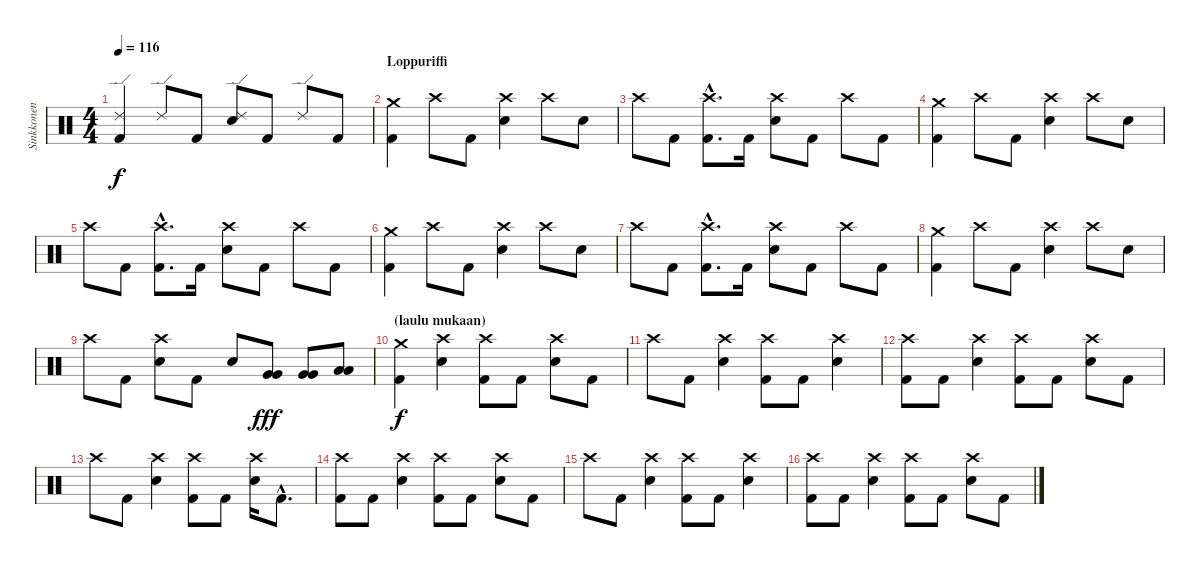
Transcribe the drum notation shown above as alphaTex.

\track ("Sinkkonen" "Sinkkonen") {instrument percussion}
\staff {score}
\articulation defaults
\ts (4 4)
\tempo 116
\clef neutral
\ks c
("Kick (hit) 2" "Ride (edge) 2").4{dy f} "Ride (edge) 2".8 "Kick (hit) 2".8 ("Ride (edge) 2" "Snare (hit) 2").8 "Kick (hit) 2".8 "Ride (edge) 2".8 "Kick (hit) 2".8 |
\section ("" "Loppuriffi")
("Kick (hit) 2" "Crash medium (hit)").4 "Crash high (hit)".8 "Kick (hit) 2".8 ("Crash high (hit)" "Snare (hit) 2").4 "Crash high (hit)".8 "Snare (hit) 2".8 |
"Crash high (hit)".8 "Kick (hit) 2".8 ("Kick (hit) 2"{hac} "Crash high (hit)"{hac}).8{d} "Kick (hit) 2".16 ("Crash high (hit)" "Snare (hit) 2").8 "Kick (hit) 2".8 "Crash high (hit)".8 "Kick (hit) 2".8 |
("Kick (hit) 2" "Crash medium (hit)").4 "Crash high (hit)".8 "Kick (hit) 2".8 ("Crash high (hit)" "Snare (hit) 2").4 "Crash high (hit)".8 "Snare (hit) 2".8 |
"Crash high (hit)".8 "Kick (hit) 2".8 ("Kick (hit) 2"{hac} "Crash high (hit)"{hac}).8{d} "Kick (hit) 2".16 ("Crash high (hit)" "Snare (hit) 2").8 "Kick (hit) 2".8 "Crash high (hit)".8 "Kick (hit) 2".8 |
("Kick (hit) 2" "Crash medium (hit)").4 "Crash high (hit)".8 "Kick (hit) 2".8 ("Crash high (hit)" "Snare (hit) 2").4 "Crash high (hit)".8 "Snare (hit) 2".8 |
"Crash high (hit)".8 "Kick (hit) 2".8 ("Kick (hit) 2"{hac} "Crash high (hit)"{hac}).8{d} "Kick (hit) 2".16 ("Crash high (hit)" "Snare (hit) 2").8 "Kick (hit) 2".8 "Crash high (hit)".8 "Kick (hit) 2".8 |
("Kick (hit) 2" "Crash medium (hit)").4 "Crash high (hit)".8 "Kick (hit) 2".8 ("Crash high (hit)" "Snare (hit) 2").4 "Crash high (hit)".8 "Snare (hit) 2".8 |
"Crash high (hit)".8 "Kick (hit) 2".8 ("Crash high (hit)" "Snare (hit) 2").8 "Kick (hit) 2".8 "Snare (hit) 2".8 ("Very Low Tom (hit)" "Very Low Tom (hit)").8{dy fff} ("Very Low Tom (hit)" "Very Low Tom (hit)").8 ("Low Floor Tom (hit)" "Low Floor Tom (hit)").8 |
\section ("" "(laulu mukaan)")
("Kick (hit) 2" "Crash medium (hit)").4{dy f} ("Crash high (hit)" "Snare (hit) 2").4 ("Kick (hit) 2" "Crash high (hit)").8 "Kick (hit) 2".8 ("Crash high (hit)" "Snare (hit) 2").8 "Kick (hit) 2".8 |
"Crash high (hit)".8 "Kick (hit) 2".8 ("Crash high (hit)" "Snare (hit) 2").4 ("Kick (hit) 2" "Crash high (hit)").8 "Kick (hit) 2".8 ("Crash high (hit)" "Snare (hit) 2").4 |
("Kick (hit) 2" "Crash high (hit)").8 "Kick (hit) 2".8 ("Crash high (hit)" "Snare (hit) 2").4 ("Kick (hit) 2" "Crash high (hit)").8 "Kick (hit) 2".8 ("Crash high (hit)" "Snare (hit) 2").8 "Kick (hit) 2".8 |
"Crash high (hit)".8 "Kick (hit) 2".8 ("Crash high (hit)" "Snare (hit) 2").4 ("Kick (hit) 2" "Crash high (hit)").8 "Kick (hit) 2".8 ("Crash high (hit)" "Snare (hit) 2").16 "Kick (hit) 2"{hac}.8{d} |
("Kick (hit) 2" "Crash high (hit)").8 "Kick (hit) 2".8 ("Crash high (hit)" "Snare (hit) 2").4 ("Kick (hit) 2" "Crash high (hit)").8 "Kick (hit) 2".8 ("Crash high (hit)" "Snare (hit) 2").8 "Kick (hit) 2".8 |
"Crash high (hit)".8 "Kick (hit) 2".8 ("Crash high (hit)" "Snare (hit) 2").4 ("Kick (hit) 2" "Crash high (hit)").8 "Kick (hit) 2".8 ("Crash high (hit)" "Snare (hit) 2").4 |
("Kick (hit) 2" "Crash high (hit)").8 "Kick (hit) 2".8 ("Crash high (hit)" "Snare (hit) 2").4 ("Kick (hit) 2" "Crash high (hit)").8 "Kick (hit) 2".8 ("Crash high (hit)" "Snare (hit) 2").8 "Kick (hit) 2".8
